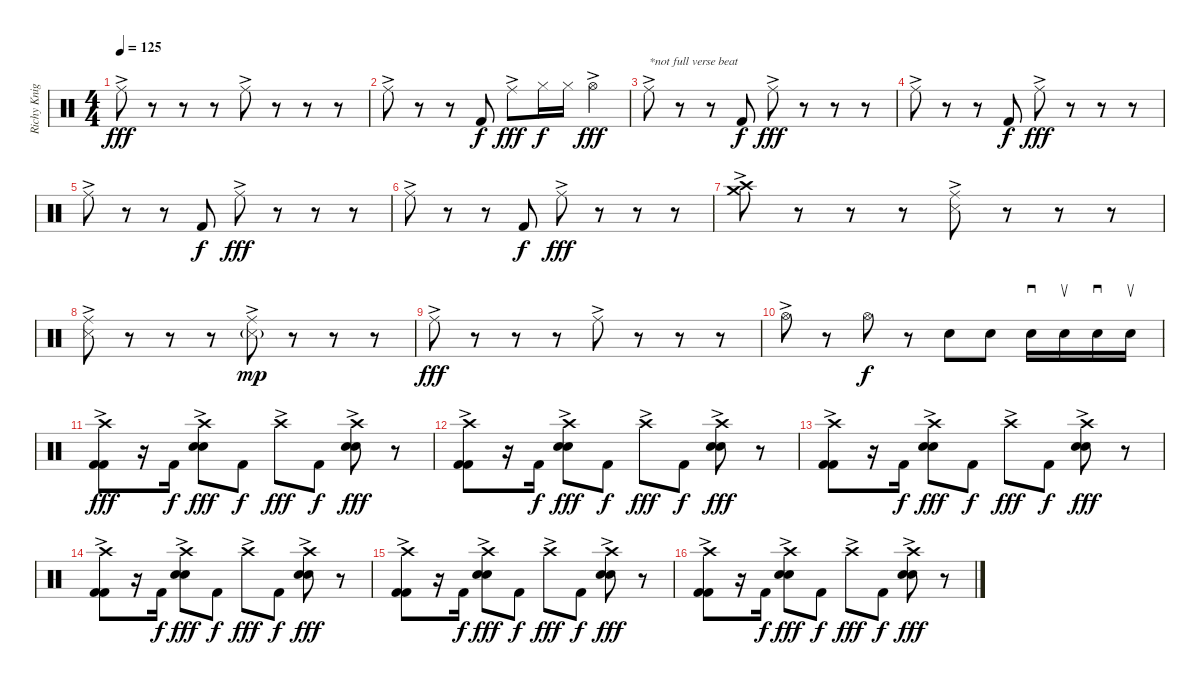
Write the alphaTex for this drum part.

\track ("Richy Knight" "Richy Knig") {instrument percussion}
\staff {score}
\articulation defaults
\ts (4 4)
\tempo 125
\clef neutral
\ks c "Ride (middle)"{ac}.8{dy fff}
r.8 r.8 r.8 "Ride (middle)"{ac}.8 r.8 r.8 r.8 |
"Ride (middle)"{ac}.8 r.8 r.8 "Kick (hit) 2".8{dy f} "Ride (middle)"{ac}.8{dy fff} "Hi-Hat (closed)".16{dy f} "Hi-Hat (closed)".16 "Hi-Hat (open)"{ac}.4{dy fff} |
"Ride (middle)"{ac}.8{txt "*not full verse beat"} r.8 r.8 "Kick (hit) 2".8{dy f} "Ride (middle)"{ac}.8{dy fff} r.8 r.8 r.8 |
"Ride (middle)"{ac}.8 r.8 r.8 "Kick (hit) 2".8{dy f} "Ride (middle)"{ac}.8{dy fff} r.8 r.8 r.8 |
"Ride (middle)"{ac}.8 r.8 r.8 "Kick (hit) 2".8{dy f} "Ride (middle)"{ac}.8{dy fff} r.8 r.8 r.8 |
"Ride (middle)"{ac}.8 r.8 r.8 "Kick (hit) 2".8{dy f} "Ride (middle)"{ac}.8{dy fff} r.8 r.8 r.8 |
("Crash high (hit)"{ac} "Crash medium (hit)"{ac}).8 r.8 r.8 r.8 ("Ride (middle)"{ac} "Snare (side stick) 3"{ac}).8 r.8 r.8 r.8 |
("Ride (middle)"{ac} "Snare (side stick) 3").8 r.8 r.8 r.8 ("Ride (middle)"{ac} "Snare (side stick) 3"{g}).8{dy mp} r.8 r.8 r.8 |
"Ride (middle)"{ac}.8{dy fff} r.8 r.8 r.8 "Ride (middle)"{ac}.8 r.8 r.8 r.8 |
"Hi-Hat (open)"{ac}.8 r.8 "Hi-Hat (open)".8{dy f} r.8 "Electric Snare (hit)".8 "Electric Snare (hit)".8 "Electric Snare (hit)".16{sd} "Electric Snare (hit)".16{su} "Electric Snare (hit)".16{sd} "Electric Snare (hit)".16{su} |
("Crash high (hit)"{ac} "Kick (hit) 2"{ac} "Kick (hit) 2"{ac}).8{dy fff} r.16 "Kick (hit) 2".16{dy f} ("Crash high (hit)"{ac} "Electric Snare (hit)"{ac} "Electric Snare (hit)"{ac}).8{dy fff} "Kick (hit) 2".8{dy f} "Crash high (hit)"{ac}.8{dy fff} "Kick (hit) 2".8{dy f} ("Crash high (hit)"{ac} "Electric Snare (hit)"{ac} "Electric Snare (hit)"{ac}).8{dy fff} r.8 |
("Crash high (hit)"{ac} "Kick (hit) 2"{ac} "Kick (hit) 2"{ac}).8 r.16 "Kick (hit) 2".16{dy f} ("Crash high (hit)"{ac} "Electric Snare (hit)"{ac} "Electric Snare (hit)"{ac}).8{dy fff} "Kick (hit) 2".8{dy f} "Crash high (hit)"{ac}.8{dy fff} "Kick (hit) 2".8{dy f} ("Crash high (hit)"{ac} "Electric Snare (hit)"{ac} "Electric Snare (hit)"{ac}).8{dy fff} r.8 |
("Crash high (hit)"{ac} "Kick (hit) 2"{ac} "Kick (hit) 2"{ac}).8 r.16 "Kick (hit) 2".16{dy f} ("Crash high (hit)"{ac} "Electric Snare (hit)"{ac} "Electric Snare (hit)"{ac}).8{dy fff} "Kick (hit) 2".8{dy f} "Crash high (hit)"{ac}.8{dy fff} "Kick (hit) 2".8{dy f} ("Crash high (hit)"{ac} "Electric Snare (hit)"{ac} "Electric Snare (hit)"{ac}).8{dy fff} r.8 |
("Crash high (hit)"{ac} "Kick (hit) 2"{ac} "Kick (hit) 2"{ac}).8 r.16 "Kick (hit) 2".16{dy f} ("Crash high (hit)"{ac} "Electric Snare (hit)"{ac} "Electric Snare (hit)"{ac}).8{dy fff} "Kick (hit) 2".8{dy f} "Crash high (hit)"{ac}.8{dy fff} "Kick (hit) 2".8{dy f} ("Crash high (hit)"{ac} "Electric Snare (hit)"{ac} "Electric Snare (hit)"{ac}).8{dy fff} r.8 |
("Crash high (hit)"{ac} "Kick (hit) 2"{ac} "Kick (hit) 2"{ac}).8 r.16 "Kick (hit) 2".16{dy f} ("Crash high (hit)"{ac} "Electric Snare (hit)"{ac} "Electric Snare (hit)"{ac}).8{dy fff} "Kick (hit) 2".8{dy f} "Crash high (hit)"{ac}.8{dy fff} "Kick (hit) 2".8{dy f} ("Crash high (hit)"{ac} "Electric Snare (hit)"{ac} "Electric Snare (hit)"{ac}).8{dy fff} r.8 |
("Crash high (hit)"{ac} "Kick (hit) 2"{ac} "Kick (hit) 2"{ac}).8 r.16 "Kick (hit) 2".16{dy f} ("Crash high (hit)"{ac} "Electric Snare (hit)"{ac} "Electric Snare (hit)"{ac}).8{dy fff} "Kick (hit) 2".8{dy f} "Crash high (hit)"{ac}.8{dy fff} "Kick (hit) 2".8{dy f} ("Crash high (hit)"{ac} "Electric Snare (hit)"{ac} "Electric Snare (hit)"{ac}).8{dy fff} r.8
